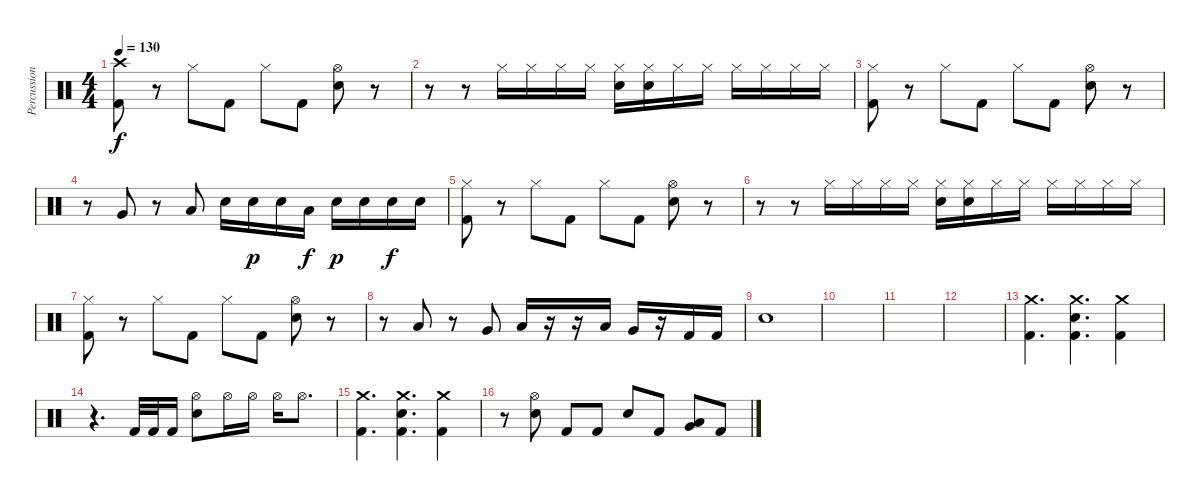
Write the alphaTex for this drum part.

\track ("Percussion" "Percussion") {instrument percussion}
\staff {score}
\articulation defaults
\ts (4 4)
\tempo 130
\clef neutral
\ks c
("Crash high (hit)" "Kick (hit) 2").8{dy f} r.8 "Hi-Hat (closed)".8 "Kick (hit) 2".8 "Hi-Hat (closed)".8 "Kick (hit) 2".8 ("Hi-Hat (open)" "Electric Snare (hit)").8 r.8 |
r.8 r.8 "Hi-Hat (closed)".16 "Hi-Hat (closed)".16 "Hi-Hat (closed)".16 "Hi-Hat (closed)".16 ("Hi-Hat (closed)" "Electric Snare (hit)").16 ("Hi-Hat (closed)" "Electric Snare (hit)").16 "Hi-Hat (closed)".16 "Hi-Hat (closed)".16 "Hi-Hat (closed)".16 "Hi-Hat (closed)".16 "Hi-Hat (closed)".16 "Hi-Hat (closed)".16 |
("Hi-Hat (closed)" "Kick (hit) 2").8 r.8 "Hi-Hat (closed)".8 "Kick (hit) 2".8 "Hi-Hat (closed)".8 "Kick (hit) 2".8 ("Hi-Hat (open)" "Electric Snare (hit)").8 r.8 |
r.8 "Very Low Tom (hit)".8 r.8 "Low Floor Tom (hit)".8 "Electric Snare (hit)".16 "Electric Snare (hit)".16{dy p} "Electric Snare (hit)".16 "Low Floor Tom (hit)".16{dy f} "Electric Snare (hit)".16{dy p} "Electric Snare (hit)".16 "Electric Snare (hit)".16{dy f} "Electric Snare (hit)".16 |
("Hi-Hat (closed)" "Kick (hit) 2").8 r.8 "Hi-Hat (closed)".8 "Kick (hit) 2".8 "Hi-Hat (closed)".8 "Kick (hit) 2".8 ("Hi-Hat (open)" "Electric Snare (hit)").8 r.8 |
r.8 r.8 "Hi-Hat (closed)".16 "Hi-Hat (closed)".16 "Hi-Hat (closed)".16 "Hi-Hat (closed)".16 ("Hi-Hat (closed)" "Electric Snare (hit)").16 ("Hi-Hat (closed)" "Electric Snare (hit)").16 "Hi-Hat (closed)".16 "Hi-Hat (closed)".16 "Hi-Hat (closed)".16 "Hi-Hat (closed)".16 "Hi-Hat (closed)".16 "Hi-Hat (closed)".16 |
("Hi-Hat (closed)" "Kick (hit) 2").8 r.8 "Hi-Hat (closed)".8 "Kick (hit) 2".8 "Hi-Hat (closed)".8 "Kick (hit) 2".8 ("Hi-Hat (open)" "Electric Snare (hit)").8 r.8 |
r.8 "Low Tom (hit)".8 r.8 "Very Low Tom (hit)".8 "Low Floor Tom (hit)".16 r.16 r.16 "Low Tom (hit)".16 "Very Low Tom (hit)".16 r.16 "Kick (hit) 2".16 "Kick (hit) 2".16 |
"Electric Snare (hit)".1 |
|
|
|
("Crash medium (hit)" "Kick (hit) 2").4{d} ("Crash medium (hit)" "Electric Snare (hit)" "Kick (hit) 2").4{d} ("Crash medium (hit)" "Kick (hit) 2").4 |
r.4{d} "Kick (hit) 2".32 "Kick (hit) 2".32 "Kick (hit) 2".16 ("Hi-Hat (open)" "Electric Snare (hit)").8 "Hi-Hat (open)".16 "Hi-Hat (open)".16 "Hi-Hat (open)".16 "Hi-Hat (open)".8{d} |
("Crash medium (hit)" "Kick (hit) 2").4{d} ("Crash medium (hit)" "Electric Snare (hit)" "Kick (hit) 2").4{d} ("Crash medium (hit)" "Kick (hit) 2").4 |
r.8 ("Hi-Hat (open)" "Electric Snare (hit)").8 "Kick (hit) 2".8 "Kick (hit) 2".8 "Electric Snare (hit)".8 "Kick (hit) 2".8 ("Very Low Tom (hit)" "Low Floor Tom (hit)").8 "Kick (hit) 2".8
